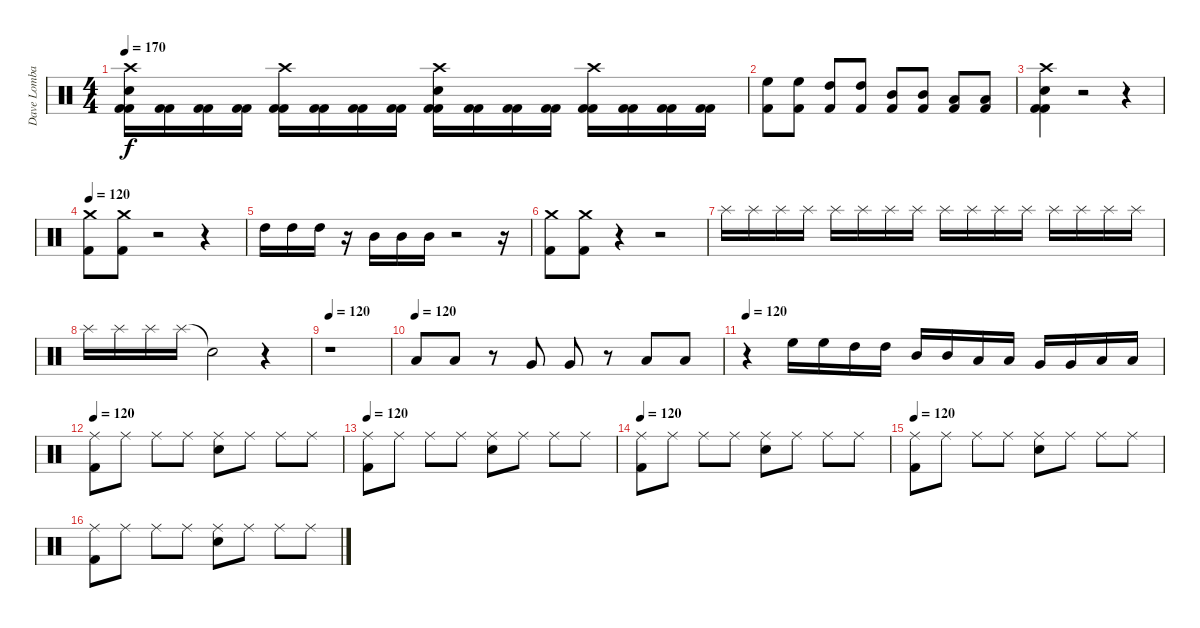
\track ("Dave Lombardo" "Dave Lomba") {instrument percussion}
\staff {score}
\articulation defaults
\ts (4 4)
\tempo 170
\clef neutral
\ks c
("Crash high (hit)" "Electric Snare (hit)" "Kick (hit) 2" "Kick (hit) 2").16{dy f} ("Kick (hit) 2" "Kick (hit) 2").16 ("Kick (hit) 2" "Kick (hit) 2").16 ("Kick (hit) 2" "Kick (hit) 2").16 ("Crash high (hit)" "Kick (hit) 2" "Kick (hit) 2").16 ("Kick (hit) 2" "Kick (hit) 2").16 ("Kick (hit) 2" "Kick (hit) 2").16 ("Kick (hit) 2" "Kick (hit) 2").16 ("Crash high (hit)" "Electric Snare (hit)" "Kick (hit) 2" "Kick (hit) 2").16 ("Kick (hit) 2" "Kick (hit) 2").16 ("Kick (hit) 2" "Kick (hit) 2").16 ("Kick (hit) 2" "Kick (hit) 2").16 ("Crash high (hit)" "Kick (hit) 2" "Kick (hit) 2").16 ("Kick (hit) 2" "Kick (hit) 2").16 ("Kick (hit) 2" "Kick (hit) 2").16 ("Kick (hit) 2" "Kick (hit) 2").16 |
("High Floor Tom (hit)" "Kick (hit) 2").8 ("High Floor Tom (hit)" "Kick (hit) 2").8 ("High Tom (hit)" "Kick (hit) 2").8 ("High Tom (hit)" "Kick (hit) 2").8 ("Mid Tom (hit)" "Kick (hit) 2").8 ("Mid Tom (hit)" "Kick (hit) 2").8 ("Low Tom (hit)" "Kick (hit) 2").8 ("Low Tom (hit)" "Kick (hit) 2").8 |
("Crash high (hit)" "Kick (hit) 2" "Electric Snare (hit)" "Kick (hit) 2").4 r.2 r.4 |
\tempo 120
("Crash medium (hit)" "Kick (hit) 2").8 ("Crash medium (hit)" "Kick (hit) 2").8 r.2 r.4 |
"High Tom (hit)".16 "High Tom (hit)".16 "High Tom (hit)".16 r.16 "Mid Tom (hit)".16 "Mid Tom (hit)".16 "Mid Tom (hit)".16 r.2 r.16 |
("Crash medium (hit)" "Kick (hit) 2").8 ("Crash medium (hit)" "Kick (hit) 2").8 r.4 r.2 |
"Splash (hit)".16{volume 0} "Splash (hit)".16{volume 16} "Splash (hit)".16 "Splash (hit)".16 "Splash (hit)".16 "Splash (hit)".16 "Splash (hit)".16 "Splash (hit)".16 "Splash (hit)".16 "Splash (hit)".16 "Splash (hit)".16 "Splash (hit)".16 "Splash (hit)".16 "Splash (hit)".16 "Splash (hit)".16 "Splash (hit)".16 |
"Splash (hit)".16 "Splash (hit)".16 "Splash (hit)".16 "Splash (hit)".16 "Snare (hit)"{t}.2 r.4 |
\tempo 120
r.1 |
\tempo (120)
"Low Tom (hit)".8 "Low Tom (hit)".8 r.8 "Very Low Tom (hit)".8 "Very Low Tom (hit)".8 r.8 "Low Floor Tom (hit)".8 "Low Floor Tom (hit)".8 |
\tempo 120
r.4 "High Floor Tom (hit)".16 "High Floor Tom (hit)".16 "High Tom (hit)".16 "High Tom (hit)".16 "Mid Tom (hit)".16 "Mid Tom (hit)".16 "Low Tom (hit)".16 "Low Tom (hit)".16 "Very Low Tom (hit)".16 "Very Low Tom (hit)".16 "Low Floor Tom (hit)".16 "Low Floor Tom (hit)".16 |
\tempo 120
("Ride (middle)" "Kick (hit) 2").8 "Ride (middle)".8 "Ride (middle)".8 "Ride (middle)".8 ("Ride (middle)" "Electric Snare (hit)").8 "Ride (middle)".8 "Ride (middle)".8 "Ride (middle)".8 |
\tempo 120
("Ride (middle)" "Kick (hit) 2").8 "Ride (middle)".8 "Ride (middle)".8 "Ride (middle)".8 ("Ride (middle)" "Electric Snare (hit)").8 "Ride (middle)".8 "Ride (middle)".8 "Ride (middle)".8 |
\tempo 120
("Ride (middle)" "Kick (hit) 2").8 "Ride (middle)".8 "Ride (middle)".8 "Ride (middle)".8 ("Ride (middle)" "Electric Snare (hit)").8 "Ride (middle)".8 "Ride (middle)".8 "Ride (middle)".8 |
\tempo 120
("Ride (middle)" "Kick (hit) 2").8 "Ride (middle)".8 "Ride (middle)".8 "Ride (middle)".8 ("Ride (middle)" "Electric Snare (hit)").8 "Ride (middle)".8 "Ride (middle)".8 "Ride (middle)".8 |
("Ride (middle)" "Kick (hit) 2").8 "Ride (middle)".8 "Ride (middle)".8 "Ride (middle)".8 ("Ride (middle)" "Electric Snare (hit)").8 "Ride (middle)".8 "Ride (middle)".8 "Ride (middle)".8
